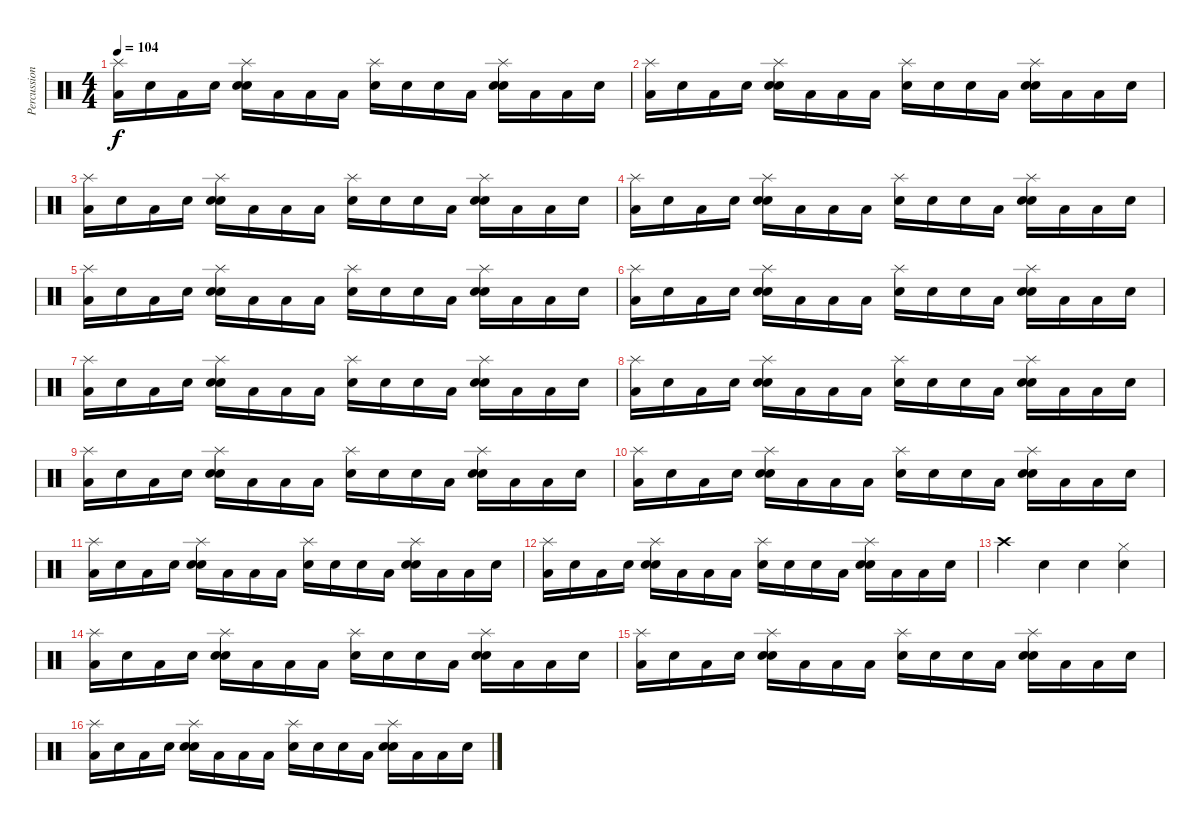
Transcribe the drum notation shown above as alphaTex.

\track ("Percussion" "Percussion") {instrument percussion}
\staff {score}
\articulation defaults
\ts (4 4)
\tempo 104
\clef neutral
\ks c
("Low Floor Tom (hit)" "Splash (hit)").16{dy f} "Snare (hit)".16 "Low Floor Tom (hit)".16 "Snare (hit)".16 ("Snare (hit)" "Splash (hit)" "Snare (hit) 2").16 "Low Floor Tom (hit)".16 "Low Floor Tom (hit)".16 "Low Floor Tom (hit)".16 ("Snare (hit)" "Splash (hit)").16 "Snare (hit)".16 "Snare (hit)".16 "Low Floor Tom (hit)".16 ("Snare (hit)" "Splash (hit)" "Snare (hit) 2").16 "Low Floor Tom (hit)".16 "Low Floor Tom (hit)".16 "Snare (hit)".16 |
("Low Floor Tom (hit)" "Splash (hit)").16 "Snare (hit)".16 "Low Floor Tom (hit)".16 "Snare (hit)".16 ("Snare (hit)" "Splash (hit)" "Snare (hit) 2").16 "Low Floor Tom (hit)".16 "Low Floor Tom (hit)".16 "Low Floor Tom (hit)".16 ("Snare (hit)" "Splash (hit)").16 "Snare (hit)".16 "Snare (hit)".16 "Low Floor Tom (hit)".16 ("Snare (hit)" "Splash (hit)" "Snare (hit) 2").16 "Low Floor Tom (hit)".16 "Low Floor Tom (hit)".16 "Snare (hit)".16 |
("Low Floor Tom (hit)" "Splash (hit)").16 "Snare (hit)".16 "Low Floor Tom (hit)".16 "Snare (hit)".16 ("Snare (hit)" "Splash (hit)" "Snare (hit) 2").16 "Low Floor Tom (hit)".16 "Low Floor Tom (hit)".16 "Low Floor Tom (hit)".16 ("Snare (hit)" "Splash (hit)").16 "Snare (hit)".16 "Snare (hit)".16 "Low Floor Tom (hit)".16 ("Snare (hit)" "Splash (hit)" "Snare (hit) 2").16 "Low Floor Tom (hit)".16 "Low Floor Tom (hit)".16 "Snare (hit)".16 |
("Low Floor Tom (hit)" "Splash (hit)").16 "Snare (hit)".16 "Low Floor Tom (hit)".16 "Snare (hit)".16 ("Snare (hit)" "Splash (hit)" "Snare (hit) 2").16 "Low Floor Tom (hit)".16 "Low Floor Tom (hit)".16 "Low Floor Tom (hit)".16 ("Snare (hit)" "Splash (hit)").16 "Snare (hit)".16 "Snare (hit)".16 "Low Floor Tom (hit)".16 ("Snare (hit)" "Splash (hit)" "Snare (hit) 2").16 "Low Floor Tom (hit)".16 "Low Floor Tom (hit)".16 "Snare (hit)".16 |
("Low Floor Tom (hit)" "Splash (hit)").16 "Snare (hit)".16 "Low Floor Tom (hit)".16 "Snare (hit)".16 ("Snare (hit)" "Splash (hit)" "Snare (hit) 2").16 "Low Floor Tom (hit)".16 "Low Floor Tom (hit)".16 "Low Floor Tom (hit)".16 ("Snare (hit)" "Splash (hit)").16 "Snare (hit)".16 "Snare (hit)".16 "Low Floor Tom (hit)".16 ("Snare (hit)" "Splash (hit)" "Snare (hit) 2").16 "Low Floor Tom (hit)".16 "Low Floor Tom (hit)".16 "Snare (hit)".16 |
("Low Floor Tom (hit)" "Splash (hit)").16 "Snare (hit)".16 "Low Floor Tom (hit)".16 "Snare (hit)".16 ("Snare (hit)" "Splash (hit)" "Snare (hit) 2").16 "Low Floor Tom (hit)".16 "Low Floor Tom (hit)".16 "Low Floor Tom (hit)".16 ("Snare (hit)" "Splash (hit)").16 "Snare (hit)".16 "Snare (hit)".16 "Low Floor Tom (hit)".16 ("Snare (hit)" "Splash (hit)" "Snare (hit) 2").16 "Low Floor Tom (hit)".16 "Low Floor Tom (hit)".16 "Snare (hit)".16 |
("Low Floor Tom (hit)" "Splash (hit)").16 "Snare (hit)".16 "Low Floor Tom (hit)".16 "Snare (hit)".16 ("Snare (hit)" "Splash (hit)" "Snare (hit) 2").16 "Low Floor Tom (hit)".16 "Low Floor Tom (hit)".16 "Low Floor Tom (hit)".16 ("Snare (hit)" "Splash (hit)").16 "Snare (hit)".16 "Snare (hit)".16 "Low Floor Tom (hit)".16 ("Snare (hit)" "Splash (hit)" "Snare (hit) 2").16 "Low Floor Tom (hit)".16 "Low Floor Tom (hit)".16 "Snare (hit)".16 |
("Low Floor Tom (hit)" "Splash (hit)").16 "Snare (hit)".16 "Low Floor Tom (hit)".16 "Snare (hit)".16 ("Snare (hit)" "Splash (hit)" "Snare (hit) 2").16 "Low Floor Tom (hit)".16 "Low Floor Tom (hit)".16 "Low Floor Tom (hit)".16 ("Snare (hit)" "Splash (hit)").16 "Snare (hit)".16 "Snare (hit)".16 "Low Floor Tom (hit)".16 ("Snare (hit)" "Splash (hit)" "Snare (hit) 2").16 "Low Floor Tom (hit)".16 "Low Floor Tom (hit)".16 "Snare (hit)".16 |
("Low Floor Tom (hit)" "Splash (hit)").16 "Snare (hit)".16 "Low Floor Tom (hit)".16 "Snare (hit)".16 ("Snare (hit)" "Splash (hit)" "Snare (hit) 2").16 "Low Floor Tom (hit)".16 "Low Floor Tom (hit)".16 "Low Floor Tom (hit)".16 ("Snare (hit)" "Splash (hit)").16 "Snare (hit)".16 "Snare (hit)".16 "Low Floor Tom (hit)".16 ("Snare (hit)" "Splash (hit)" "Snare (hit) 2").16 "Low Floor Tom (hit)".16 "Low Floor Tom (hit)".16 "Snare (hit)".16 |
("Low Floor Tom (hit)" "Splash (hit)").16 "Snare (hit)".16 "Low Floor Tom (hit)".16 "Snare (hit)".16 ("Snare (hit)" "Splash (hit)" "Snare (hit) 2").16 "Low Floor Tom (hit)".16 "Low Floor Tom (hit)".16 "Low Floor Tom (hit)".16 ("Snare (hit)" "Splash (hit)").16 "Snare (hit)".16 "Snare (hit)".16 "Low Floor Tom (hit)".16 ("Snare (hit)" "Splash (hit)" "Snare (hit) 2").16 "Low Floor Tom (hit)".16 "Low Floor Tom (hit)".16 "Snare (hit)".16 |
("Low Floor Tom (hit)" "Splash (hit)").16 "Snare (hit)".16 "Low Floor Tom (hit)".16 "Snare (hit)".16 ("Snare (hit)" "Splash (hit)" "Snare (hit) 2").16 "Low Floor Tom (hit)".16 "Low Floor Tom (hit)".16 "Low Floor Tom (hit)".16 ("Snare (hit)" "Splash (hit)").16 "Snare (hit)".16 "Snare (hit)".16 "Low Floor Tom (hit)".16 ("Snare (hit)" "Splash (hit)" "Snare (hit) 2").16 "Low Floor Tom (hit)".16 "Low Floor Tom (hit)".16 "Snare (hit)".16 |
("Low Floor Tom (hit)" "Splash (hit)").16 "Snare (hit)".16 "Low Floor Tom (hit)".16 "Snare (hit)".16 ("Snare (hit)" "Splash (hit)" "Snare (hit) 2").16 "Low Floor Tom (hit)".16 "Low Floor Tom (hit)".16 "Low Floor Tom (hit)".16 ("Snare (hit)" "Splash (hit)").16 "Snare (hit)".16 "Snare (hit)".16 "Low Floor Tom (hit)".16 ("Snare (hit)" "Splash (hit)" "Snare (hit) 2").16 "Low Floor Tom (hit)".16 "Low Floor Tom (hit)".16 "Snare (hit)".16 |
"Crash high (hit)".4 "Snare (hit)".4 "Snare (hit)".4 ("Snare (hit) 2" "Hi-Hat (closed)").4 |
("Low Floor Tom (hit)" "Splash (hit)").16 "Snare (hit)".16 "Low Floor Tom (hit)".16 "Snare (hit)".16 ("Snare (hit)" "Splash (hit)" "Snare (hit) 2").16 "Low Floor Tom (hit)".16 "Low Floor Tom (hit)".16 "Low Floor Tom (hit)".16 ("Snare (hit)" "Splash (hit)").16 "Snare (hit)".16 "Snare (hit)".16 "Low Floor Tom (hit)".16 ("Snare (hit)" "Splash (hit)" "Snare (hit) 2").16 "Low Floor Tom (hit)".16 "Low Floor Tom (hit)".16 "Snare (hit)".16 |
("Low Floor Tom (hit)" "Splash (hit)").16 "Snare (hit)".16 "Low Floor Tom (hit)".16 "Snare (hit)".16 ("Snare (hit)" "Splash (hit)" "Snare (hit) 2").16 "Low Floor Tom (hit)".16 "Low Floor Tom (hit)".16 "Low Floor Tom (hit)".16 ("Snare (hit)" "Splash (hit)").16 "Snare (hit)".16 "Snare (hit)".16 "Low Floor Tom (hit)".16 ("Snare (hit)" "Splash (hit)" "Snare (hit) 2").16 "Low Floor Tom (hit)".16 "Low Floor Tom (hit)".16 "Snare (hit)".16 |
("Low Floor Tom (hit)" "Splash (hit)").16 "Snare (hit)".16 "Low Floor Tom (hit)".16 "Snare (hit)".16 ("Snare (hit)" "Splash (hit)" "Snare (hit) 2").16 "Low Floor Tom (hit)".16 "Low Floor Tom (hit)".16 "Low Floor Tom (hit)".16 ("Snare (hit)" "Splash (hit)").16 "Snare (hit)".16 "Snare (hit)".16 "Low Floor Tom (hit)".16 ("Snare (hit)" "Splash (hit)" "Snare (hit) 2").16 "Low Floor Tom (hit)".16 "Low Floor Tom (hit)".16 "Snare (hit)".16
